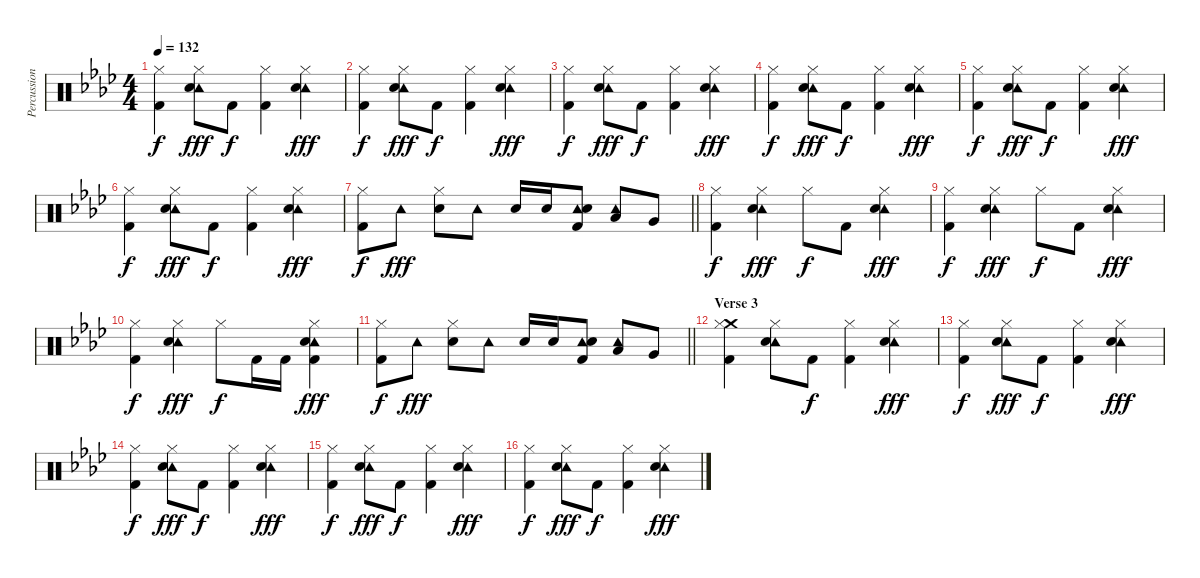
\track ("Percussion - Nigel Olsen/Ray Cooper" "Percussion") {instrument percussion}
\staff {score}
\articulation defaults
\ts (4 4)
\tempo 132
\clef neutral
\ks ab
("Hi-Hat (closed)" "Kick (hit) 2").4{dy f} ("Tambourine (hit)" "Hi-Hat (closed)" "Snare (hit) 2").8{dy fff} "Kick (hit) 2".8{dy f} ("Hi-Hat (closed)" "Kick (hit) 2").4 ("Tambourine (hit)" "Hi-Hat (closed)" "Snare (hit) 2").4{dy fff} |
("Hi-Hat (closed)" "Kick (hit) 2").4{dy f} ("Tambourine (hit)" "Hi-Hat (closed)" "Snare (hit) 2").8{dy fff} "Kick (hit) 2".8{dy f} ("Hi-Hat (closed)" "Kick (hit) 2").4 ("Tambourine (hit)" "Hi-Hat (closed)" "Snare (hit) 2").4{dy fff} |
("Hi-Hat (closed)" "Kick (hit) 2").4{dy f} ("Tambourine (hit)" "Hi-Hat (closed)" "Snare (hit) 2").8{dy fff} "Kick (hit) 2".8{dy f} ("Hi-Hat (closed)" "Kick (hit) 2").4 ("Tambourine (hit)" "Hi-Hat (closed)" "Snare (hit) 2").4{dy fff} |
("Hi-Hat (closed)" "Kick (hit) 2").4{dy f} ("Tambourine (hit)" "Hi-Hat (closed)" "Snare (hit) 2").8{dy fff} "Kick (hit) 2".8{dy f} ("Hi-Hat (closed)" "Kick (hit) 2").4 ("Tambourine (hit)" "Hi-Hat (closed)" "Snare (hit) 2").4{dy fff} |
("Hi-Hat (closed)" "Kick (hit) 2").4{dy f} ("Tambourine (hit)" "Hi-Hat (closed)" "Snare (hit) 2").8{dy fff} "Kick (hit) 2".8{dy f} ("Hi-Hat (closed)" "Kick (hit) 2").4 ("Tambourine (hit)" "Hi-Hat (closed)" "Snare (hit) 2").4{dy fff} |
("Hi-Hat (closed)" "Kick (hit) 2").4{dy f} ("Tambourine (hit)" "Hi-Hat (closed)" "Snare (hit) 2").8{dy fff} "Kick (hit) 2".8{dy f} ("Hi-Hat (closed)" "Kick (hit) 2").4 ("Tambourine (hit)" "Hi-Hat (closed)" "Snare (hit) 2").4{dy fff} |
\barLineRight lightlight
("Hi-Hat (closed)" "Kick (hit) 2").8{dy f} "Tambourine (hit)".8{dy fff} ("Hi-Hat (closed)" "Snare (hit) 2").8 "Tambourine (hit)".8 "Snare (hit) 2".16 "Snare (hit) 2".16 ("Tambourine (hit)" "Snare (hit) 2" "Kick (hit) 2").8 ("Tambourine (hit)" "Low Tom (hit)").8 "Very Low Tom (hit)".8 |
("Hi-Hat (closed)" "Kick (hit) 2").4{dy f} ("Tambourine (hit)" "Hi-Hat (closed)" "Snare (hit) 2").4{dy fff} "Hi-Hat (closed)".8{dy f} "Kick (hit) 2".8 ("Tambourine (hit)" "Hi-Hat (closed)" "Snare (hit) 2").4{dy fff} |
("Hi-Hat (closed)" "Kick (hit) 2").4{dy f} ("Tambourine (hit)" "Hi-Hat (closed)" "Snare (hit) 2").4{dy fff} "Hi-Hat (closed)".8{dy f} "Kick (hit) 2".8 ("Tambourine (hit)" "Hi-Hat (closed)" "Snare (hit) 2").4{dy fff} |
("Hi-Hat (closed)" "Kick (hit) 2").4{dy f} ("Tambourine (hit)" "Hi-Hat (closed)" "Snare (hit) 2").4{dy fff} "Hi-Hat (closed)".8{dy f} "Kick (hit) 2".16 "Kick (hit) 2".16 ("Tambourine (hit)" "Hi-Hat (closed)" "Snare (hit) 2" "Kick (hit) 2").4{dy fff} |
\barLineRight lightlight
("Hi-Hat (closed)" "Kick (hit) 2").8{dy f} "Tambourine (hit)".8{dy fff} ("Hi-Hat (closed)" "Snare (hit) 2").8 "Tambourine (hit)".8 "Snare (hit) 2".16 "Snare (hit) 2".16 ("Tambourine (hit)" "Snare (hit) 2" "Kick (hit) 2").8 ("Tambourine (hit)" "Low Tom (hit)").8 "Very Low Tom (hit)".8 |
\section ("" "Verse 3")
("Crash medium (hit)" "Hi-Hat (closed)" "Kick (hit) 2").4 ("Tambourine (hit)" "Hi-Hat (closed)" "Snare (hit) 2").8 "Kick (hit) 2".8{dy f} ("Hi-Hat (closed)" "Kick (hit) 2").4 ("Tambourine (hit)" "Hi-Hat (closed)" "Snare (hit) 2").4{dy fff} |
("Hi-Hat (closed)" "Kick (hit) 2").4{dy f} ("Tambourine (hit)" "Hi-Hat (closed)" "Snare (hit) 2").8{dy fff} "Kick (hit) 2".8{dy f} ("Hi-Hat (closed)" "Kick (hit) 2").4 ("Tambourine (hit)" "Hi-Hat (closed)" "Snare (hit) 2").4{dy fff} |
("Hi-Hat (closed)" "Kick (hit) 2").4{dy f} ("Tambourine (hit)" "Hi-Hat (closed)" "Snare (hit) 2").8{dy fff} "Kick (hit) 2".8{dy f} ("Hi-Hat (closed)" "Kick (hit) 2").4 ("Tambourine (hit)" "Hi-Hat (closed)" "Snare (hit) 2").4{dy fff} |
("Hi-Hat (closed)" "Kick (hit) 2").4{dy f} ("Tambourine (hit)" "Hi-Hat (closed)" "Snare (hit) 2").8{dy fff} "Kick (hit) 2".8{dy f} ("Hi-Hat (closed)" "Kick (hit) 2").4 ("Tambourine (hit)" "Hi-Hat (closed)" "Snare (hit) 2").4{dy fff} |
("Hi-Hat (closed)" "Kick (hit) 2").4{dy f} ("Tambourine (hit)" "Hi-Hat (closed)" "Snare (hit) 2").8{dy fff} "Kick (hit) 2".8{dy f} ("Hi-Hat (closed)" "Kick (hit) 2").4 ("Tambourine (hit)" "Hi-Hat (closed)" "Snare (hit) 2").4{dy fff}
